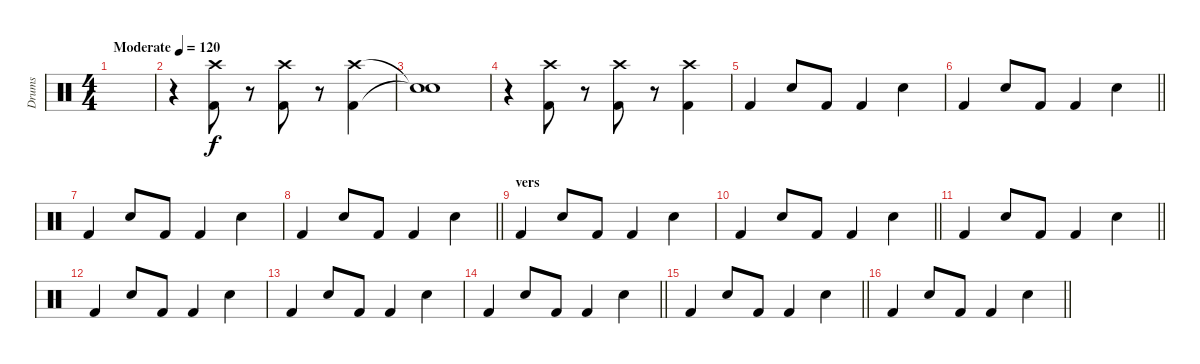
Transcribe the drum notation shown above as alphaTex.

\track ("Drums" "Drums") {instrument percussion}
\staff {score}
\articulation defaults
\ts (4 4)
\tempo (120 "Moderate")
\clef neutral
\ks c
|
r.4 ("Kick (hit) 2" "Crash high (hit)").8 r.8 ("Kick (hit) 2" "Crash high (hit)").8 r.8 ("Kick (hit) 2" "Crash high (hit)").4 |
("Snare (hit)"{t} "Snare (hit)"{t}).1 |
r.4 ("Kick (hit) 2" "Crash high (hit)").8 r.8 ("Kick (hit) 2" "Crash high (hit)").8 r.8 ("Kick (hit) 2" "Crash high (hit)").4 |
"Kick (hit) 2".4 "Snare (hit) 2".8 "Kick (hit) 2".8 "Kick (hit) 2".4 "Snare (hit) 2".4 |
\barLineRight lightlight "Kick (hit) 2".4 "Snare (hit) 2".8 "Kick (hit) 2".8 "Kick (hit) 2".4 "Snare (hit) 2".4
|
"Kick (hit) 2".4 "Snare (hit) 2".8 "Kick (hit) 2".8 "Kick (hit) 2".4 "Snare (hit) 2".4 |
\barLineRight lightlight "Kick (hit) 2".4 "Snare (hit) 2".8 "Kick (hit) 2".8 "Kick (hit) 2".4 "Snare (hit) 2".4
|
\section ("" "vers")
"Kick (hit) 2".4 "Snare (hit) 2".8 "Kick (hit) 2".8 "Kick (hit) 2".4 "Snare (hit) 2".4 |
\barLineRight lightlight "Kick (hit) 2".4 "Snare (hit) 2".8 "Kick (hit) 2".8 "Kick (hit) 2".4 "Snare (hit) 2".4
|
\barLineRight lightlight "Kick (hit) 2".4 "Snare (hit) 2".8 "Kick (hit) 2".8 "Kick (hit) 2".4 "Snare (hit) 2".4
|
"Kick (hit) 2".4 "Snare (hit) 2".8 "Kick (hit) 2".8 "Kick (hit) 2".4 "Snare (hit) 2".4 |
"Kick (hit) 2".4 "Snare (hit) 2".8 "Kick (hit) 2".8 "Kick (hit) 2".4 "Snare (hit) 2".4 |
\barLineRight lightlight "Kick (hit) 2".4 "Snare (hit) 2".8 "Kick (hit) 2".8 "Kick (hit) 2".4 "Snare (hit) 2".4
|
\barLineRight lightlight "Kick (hit) 2".4 "Snare (hit) 2".8 "Kick (hit) 2".8 "Kick (hit) 2".4 "Snare (hit) 2".4
|
\barLineRight lightlight "Kick (hit) 2".4 "Snare (hit) 2".8 "Kick (hit) 2".8 "Kick (hit) 2".4 "Snare (hit) 2".4
